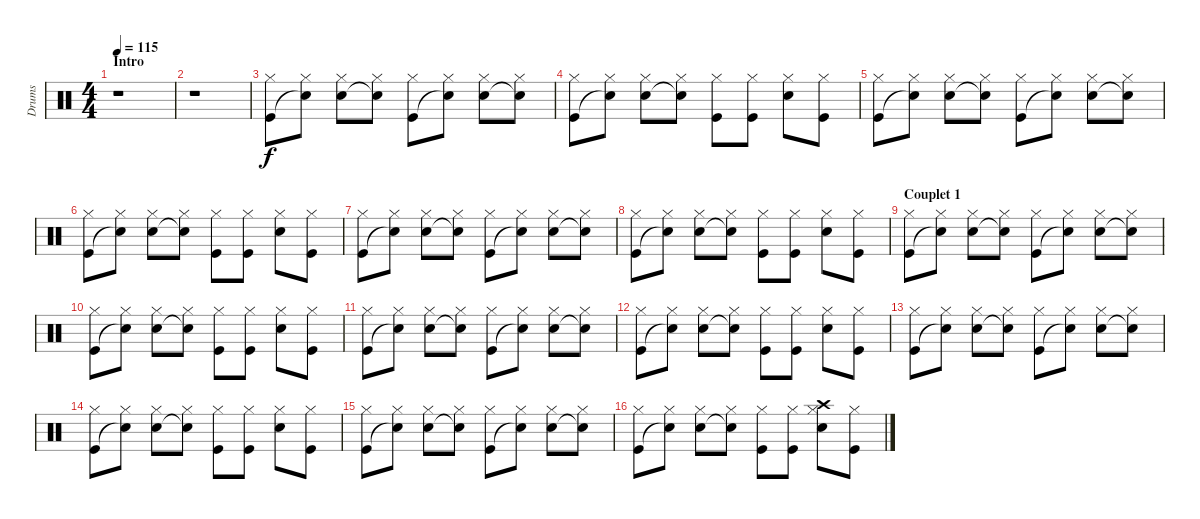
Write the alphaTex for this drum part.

\track ("Drums" "Drums") {instrument percussion}
\staff {score}
\articulation defaults
\ts (4 4)
\section ("" "Intro")
\tempo 115
\clef neutral
\ks c
r.1{dy f volume 10} |
r.1 |
("Hi-Hat (closed)" "Kick (hit)").8 ("Hi-Hat (closed)" "Snare (hit)"{t}).8 ("Hi-Hat (closed)" "Snare (hit) 2").8 ("Hi-Hat (closed)" "Snare (hit)"{t}).8 ("Hi-Hat (closed)" "Kick (hit)").8 ("Hi-Hat (closed)" "Snare (hit)"{t}).8 ("Hi-Hat (closed)" "Snare (hit) 2").8 ("Hi-Hat (closed)" "Snare (hit)"{t}).8 |
("Hi-Hat (closed)" "Kick (hit)").8 ("Hi-Hat (closed)" "Snare (hit)"{t}).8 ("Hi-Hat (closed)" "Snare (hit) 2").8 ("Hi-Hat (closed)" "Snare (hit)"{t}).8 ("Hi-Hat (closed)" "Kick (hit)").8 ("Hi-Hat (closed)" "Kick (hit)").8 ("Hi-Hat (closed)" "Snare (hit) 2").8 ("Hi-Hat (closed)" "Kick (hit)").8 |
("Hi-Hat (closed)" "Kick (hit)").8{volume 16} ("Hi-Hat (closed)" "Snare (hit)"{t}).8 ("Hi-Hat (closed)" "Snare (hit) 2").8 ("Hi-Hat (closed)" "Snare (hit)"{t}).8 ("Hi-Hat (closed)" "Kick (hit)").8 ("Hi-Hat (closed)" "Snare (hit)"{t}).8 ("Hi-Hat (closed)" "Snare (hit) 2").8 ("Hi-Hat (closed)" "Snare (hit)"{t}).8 |
("Hi-Hat (closed)" "Kick (hit)").8 ("Hi-Hat (closed)" "Snare (hit)"{t}).8 ("Hi-Hat (closed)" "Snare (hit) 2").8 ("Hi-Hat (closed)" "Snare (hit)"{t}).8 ("Hi-Hat (closed)" "Kick (hit)").8 ("Hi-Hat (closed)" "Kick (hit)").8 ("Hi-Hat (closed)" "Snare (hit) 2").8 ("Hi-Hat (closed)" "Kick (hit)").8 |
("Hi-Hat (closed)" "Kick (hit)").8 ("Hi-Hat (closed)" "Snare (hit)"{t}).8 ("Hi-Hat (closed)" "Snare (hit) 2").8 ("Hi-Hat (closed)" "Snare (hit)"{t}).8 ("Hi-Hat (closed)" "Kick (hit)").8 ("Hi-Hat (closed)" "Snare (hit)"{t}).8 ("Hi-Hat (closed)" "Snare (hit) 2").8 ("Hi-Hat (closed)" "Snare (hit)"{t}).8 |
("Hi-Hat (closed)" "Kick (hit)").8 ("Hi-Hat (closed)" "Snare (hit)"{t}).8 ("Hi-Hat (closed)" "Snare (hit) 2").8 ("Hi-Hat (closed)" "Snare (hit)"{t}).8 ("Hi-Hat (closed)" "Kick (hit)").8 ("Hi-Hat (closed)" "Kick (hit)").8 ("Hi-Hat (closed)" "Snare (hit) 2").8 ("Hi-Hat (closed)" "Kick (hit)").8 |
\section ("" "Couplet 1")
("Hi-Hat (closed)" "Kick (hit)").8 ("Hi-Hat (closed)" "Snare (hit)"{t}).8 ("Hi-Hat (closed)" "Snare (hit) 2").8 ("Hi-Hat (closed)" "Snare (hit)"{t}).8 ("Hi-Hat (closed)" "Kick (hit)").8 ("Hi-Hat (closed)" "Snare (hit)"{t}).8 ("Hi-Hat (closed)" "Snare (hit) 2").8 ("Hi-Hat (closed)" "Snare (hit)"{t}).8 |
("Hi-Hat (closed)" "Kick (hit)").8 ("Hi-Hat (closed)" "Snare (hit)"{t}).8 ("Hi-Hat (closed)" "Snare (hit) 2").8 ("Hi-Hat (closed)" "Snare (hit)"{t}).8 ("Hi-Hat (closed)" "Kick (hit)").8 ("Hi-Hat (closed)" "Kick (hit)").8 ("Hi-Hat (closed)" "Snare (hit) 2").8 ("Hi-Hat (closed)" "Kick (hit)").8 |
("Hi-Hat (closed)" "Kick (hit)").8 ("Hi-Hat (closed)" "Snare (hit)"{t}).8 ("Hi-Hat (closed)" "Snare (hit) 2").8 ("Hi-Hat (closed)" "Snare (hit)"{t}).8 ("Hi-Hat (closed)" "Kick (hit)").8 ("Hi-Hat (closed)" "Snare (hit)"{t}).8 ("Hi-Hat (closed)" "Snare (hit) 2").8 ("Hi-Hat (closed)" "Snare (hit)"{t}).8 |
("Hi-Hat (closed)" "Kick (hit)").8 ("Hi-Hat (closed)" "Snare (hit)"{t}).8 ("Hi-Hat (closed)" "Snare (hit) 2").8 ("Hi-Hat (closed)" "Snare (hit)"{t}).8 ("Hi-Hat (closed)" "Kick (hit)").8 ("Hi-Hat (closed)" "Kick (hit)").8 ("Hi-Hat (closed)" "Snare (hit) 2").8 ("Hi-Hat (closed)" "Kick (hit)").8 |
("Hi-Hat (closed)" "Kick (hit)").8 ("Hi-Hat (closed)" "Snare (hit)"{t}).8 ("Hi-Hat (closed)" "Snare (hit) 2").8 ("Hi-Hat (closed)" "Snare (hit)"{t}).8 ("Hi-Hat (closed)" "Kick (hit)").8 ("Hi-Hat (closed)" "Snare (hit)"{t}).8 ("Hi-Hat (closed)" "Snare (hit) 2").8 ("Hi-Hat (closed)" "Snare (hit)"{t}).8 |
("Hi-Hat (closed)" "Kick (hit)").8 ("Hi-Hat (closed)" "Snare (hit)"{t}).8 ("Hi-Hat (closed)" "Snare (hit) 2").8 ("Hi-Hat (closed)" "Snare (hit)"{t}).8 ("Hi-Hat (closed)" "Kick (hit)").8 ("Hi-Hat (closed)" "Kick (hit)").8 ("Hi-Hat (closed)" "Snare (hit) 2").8 ("Hi-Hat (closed)" "Kick (hit)").8 |
("Hi-Hat (closed)" "Kick (hit)").8 ("Hi-Hat (closed)" "Snare (hit)"{t}).8 ("Hi-Hat (closed)" "Snare (hit) 2").8 ("Hi-Hat (closed)" "Snare (hit)"{t}).8 ("Hi-Hat (closed)" "Kick (hit)").8 ("Hi-Hat (closed)" "Snare (hit)"{t}).8 ("Hi-Hat (closed)" "Snare (hit) 2").8 ("Hi-Hat (closed)" "Snare (hit)"{t}).8 |
("Hi-Hat (closed)" "Kick (hit)").8 ("Hi-Hat (closed)" "Snare (hit)"{t}).8 ("Hi-Hat (closed)" "Snare (hit) 2").8 ("Hi-Hat (closed)" "Snare (hit)"{t}).8 ("Hi-Hat (closed)" "Kick (hit)").8 ("Hi-Hat (closed)" "Kick (hit)").8 ("Hi-Hat (closed)" "Crash high (hit)" "Snare (hit) 2").8 ("Hi-Hat (closed)" "Kick (hit)").8
